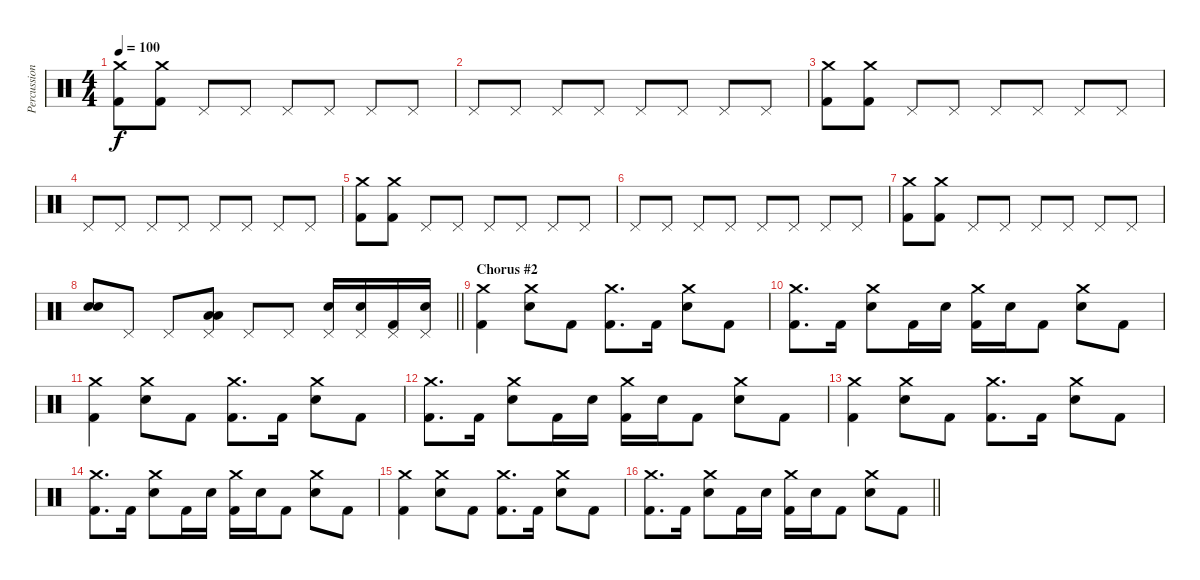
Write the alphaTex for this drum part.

\track ("Percussion" "Percussion") {instrument percussion}
\staff {score}
\articulation defaults
\ts (4 4)
\tempo 100
\clef neutral
\ks c
("Crash medium (hit)" "Kick (hit) 2").8{dy f} ("Crash medium (hit)" "Kick (hit) 2").8 "Pedal Hi-Hat (hit)".8 "Pedal Hi-Hat (hit)".8 "Pedal Hi-Hat (hit)".8 "Pedal Hi-Hat (hit)".8 "Pedal Hi-Hat (hit)".8 "Pedal Hi-Hat (hit)".8 |
"Pedal Hi-Hat (hit)".8 "Pedal Hi-Hat (hit)".8 "Pedal Hi-Hat (hit)".8 "Pedal Hi-Hat (hit)".8 "Pedal Hi-Hat (hit)".8 "Pedal Hi-Hat (hit)".8 "Pedal Hi-Hat (hit)".8 "Pedal Hi-Hat (hit)".8 |
("Crash medium (hit)" "Kick (hit) 2").8 ("Crash medium (hit)" "Kick (hit) 2").8 "Pedal Hi-Hat (hit)".8 "Pedal Hi-Hat (hit)".8 "Pedal Hi-Hat (hit)".8 "Pedal Hi-Hat (hit)".8 "Pedal Hi-Hat (hit)".8 "Pedal Hi-Hat (hit)".8 |
"Pedal Hi-Hat (hit)".8 "Pedal Hi-Hat (hit)".8 "Pedal Hi-Hat (hit)".8 "Pedal Hi-Hat (hit)".8 "Pedal Hi-Hat (hit)".8 "Pedal Hi-Hat (hit)".8 "Pedal Hi-Hat (hit)".8 "Pedal Hi-Hat (hit)".8 |
("Crash medium (hit)" "Kick (hit) 2").8 ("Crash medium (hit)" "Kick (hit) 2").8 "Pedal Hi-Hat (hit)".8 "Pedal Hi-Hat (hit)".8 "Pedal Hi-Hat (hit)".8 "Pedal Hi-Hat (hit)".8 "Pedal Hi-Hat (hit)".8 "Pedal Hi-Hat (hit)".8 |
"Pedal Hi-Hat (hit)".8 "Pedal Hi-Hat (hit)".8 "Pedal Hi-Hat (hit)".8 "Pedal Hi-Hat (hit)".8 "Pedal Hi-Hat (hit)".8 "Pedal Hi-Hat (hit)".8 "Pedal Hi-Hat (hit)".8 "Pedal Hi-Hat (hit)".8 |
("Crash medium (hit)" "Kick (hit) 2").8 ("Crash medium (hit)" "Kick (hit) 2").8 "Pedal Hi-Hat (hit)".8 "Pedal Hi-Hat (hit)".8 "Pedal Hi-Hat (hit)".8 "Pedal Hi-Hat (hit)".8 "Pedal Hi-Hat (hit)".8 "Pedal Hi-Hat (hit)".8 |
\barLineRight lightlight
("Electric Snare (hit)" "Snare (hit) 2").8 "Pedal Hi-Hat (hit)".8 "Pedal Hi-Hat (hit)".8 ("Low Tom (hit)" "Low Tom (hit)" "Pedal Hi-Hat (hit)").8 "Pedal Hi-Hat (hit)".8 "Pedal Hi-Hat (hit)".8 ("Pedal Hi-Hat (hit)" "Snare (hit) 2").16 ("Pedal Hi-Hat (hit)" "Snare (hit) 2").16 ("Pedal Hi-Hat (hit)" "Kick (hit) 2").16 ("Pedal Hi-Hat (hit)" "Snare (hit) 2").16 |
\section ("" "Chorus #2")
("Crash medium (hit)" "Kick (hit) 2").4 ("Crash medium (hit)" "Snare (hit) 2").8 "Kick (hit) 2".8 ("Crash medium (hit)" "Kick (hit) 2").8{d} "Kick (hit) 2".16 ("Crash medium (hit)" "Snare (hit) 2").8 "Kick (hit) 2".8 |
("Crash medium (hit)" "Kick (hit) 2").8{d} "Kick (hit) 2".16 ("Crash medium (hit)" "Snare (hit) 2").8 "Kick (hit) 2".16 "Snare (hit) 2".16 ("Crash medium (hit)" "Kick (hit) 2").16 "Snare (hit) 2".16 "Kick (hit) 2".8 ("Crash medium (hit)" "Snare (hit) 2").8 "Kick (hit) 2".8 |
("Crash medium (hit)" "Kick (hit) 2").4 ("Crash medium (hit)" "Snare (hit) 2").8 "Kick (hit) 2".8 ("Crash medium (hit)" "Kick (hit) 2").8{d} "Kick (hit) 2".16 ("Crash medium (hit)" "Snare (hit) 2").8 "Kick (hit) 2".8 |
("Crash medium (hit)" "Kick (hit) 2").8{d} "Kick (hit) 2".16 ("Crash medium (hit)" "Snare (hit) 2").8 "Kick (hit) 2".16 "Snare (hit) 2".16 ("Crash medium (hit)" "Kick (hit) 2").16 "Snare (hit) 2".16 "Kick (hit) 2".8 ("Crash medium (hit)" "Snare (hit) 2").8 "Kick (hit) 2".8 |
("Crash medium (hit)" "Kick (hit) 2").4 ("Crash medium (hit)" "Snare (hit) 2").8 "Kick (hit) 2".8 ("Crash medium (hit)" "Kick (hit) 2").8{d} "Kick (hit) 2".16 ("Crash medium (hit)" "Snare (hit) 2").8 "Kick (hit) 2".8 |
("Crash medium (hit)" "Kick (hit) 2").8{d} "Kick (hit) 2".16 ("Crash medium (hit)" "Snare (hit) 2").8 "Kick (hit) 2".16 "Snare (hit) 2".16 ("Crash medium (hit)" "Kick (hit) 2").16 "Snare (hit) 2".16 "Kick (hit) 2".8 ("Crash medium (hit)" "Snare (hit) 2").8 "Kick (hit) 2".8 |
("Crash medium (hit)" "Kick (hit) 2").4 ("Crash medium (hit)" "Snare (hit) 2").8 "Kick (hit) 2".8 ("Crash medium (hit)" "Kick (hit) 2").8{d} "Kick (hit) 2".16 ("Crash medium (hit)" "Snare (hit) 2").8 "Kick (hit) 2".8 |
\barLineRight lightlight
("Crash medium (hit)" "Kick (hit) 2").8{d} "Kick (hit) 2".16 ("Crash medium (hit)" "Snare (hit) 2").8 "Kick (hit) 2".16 "Snare (hit) 2".16 ("Crash medium (hit)" "Kick (hit) 2").16 "Snare (hit) 2".16 "Kick (hit) 2".8 ("Crash medium (hit)" "Snare (hit) 2").8 "Kick (hit) 2".8
